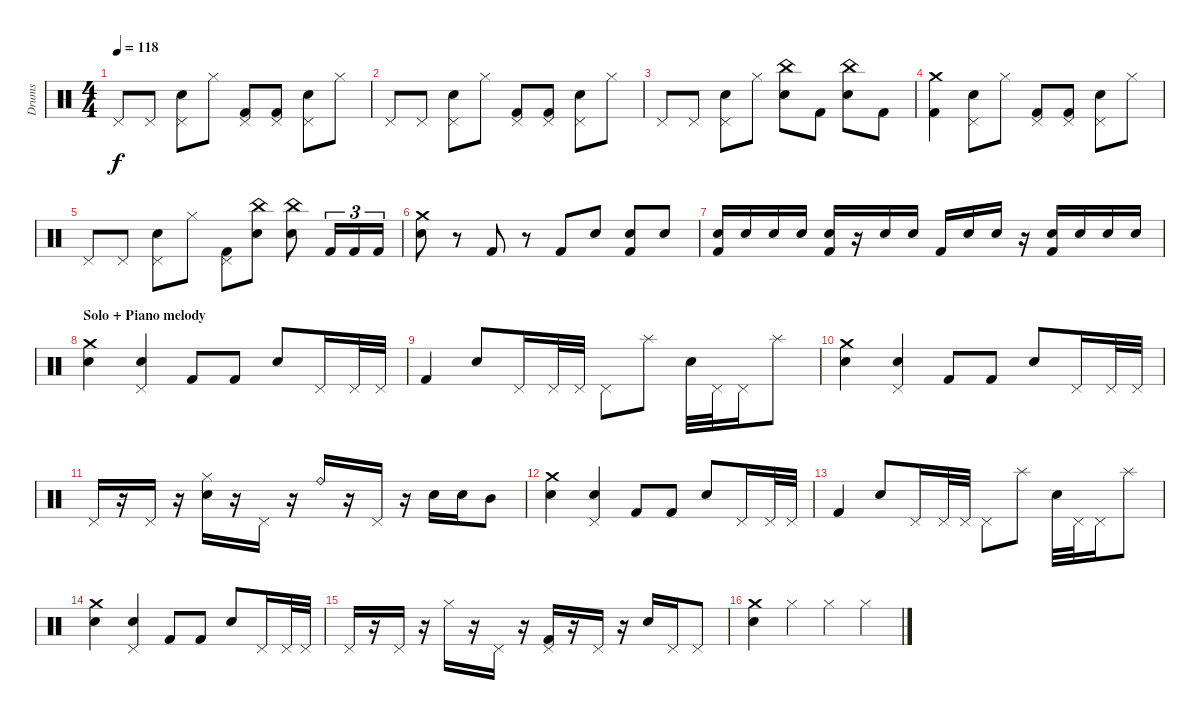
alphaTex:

\track ("Drums" "Drums") {instrument percussion}
\staff {score}
\articulation defaults
\ts (4 4)
\tempo 118
\clef neutral
\ks c "Pedal Hi-Hat (hit)".8{dy f} "Pedal Hi-Hat (hit)".8
("Pedal Hi-Hat (hit)" "Electric Snare (hit)").8 "Hi-Hat (closed)".8 ("Pedal Hi-Hat (hit)" "Kick (hit) 2").8 ("Pedal Hi-Hat (hit)" "Kick (hit) 2").8 ("Pedal Hi-Hat (hit)" "Electric Snare (hit)").8 "Hi-Hat (closed)".8 |
"Pedal Hi-Hat (hit)".8 "Pedal Hi-Hat (hit)".8 ("Pedal Hi-Hat (hit)" "Electric Snare (hit)").8 "Hi-Hat (closed)".8 ("Pedal Hi-Hat (hit)" "Kick (hit) 2").8 ("Pedal Hi-Hat (hit)" "Kick (hit) 2").8 ("Pedal Hi-Hat (hit)" "Electric Snare (hit)").8 "Hi-Hat (closed)".8 |
"Pedal Hi-Hat (hit)".8 "Pedal Hi-Hat (hit)".8 ("Pedal Hi-Hat (hit)" "Electric Snare (hit)").8 "Hi-Hat (closed)".8 ("China (hit)" "Electric Snare (hit)").8 "Kick (hit) 2".8 ("China (hit)" "Electric Snare (hit)").8 "Kick (hit) 2".8 |
("Crash medium (hit)" "Kick (hit) 2").4 ("Pedal Hi-Hat (hit)" "Electric Snare (hit)").8 "Hi-Hat (closed)".8 ("Pedal Hi-Hat (hit)" "Kick (hit) 2").8 ("Pedal Hi-Hat (hit)" "Kick (hit) 2").8 ("Pedal Hi-Hat (hit)" "Electric Snare (hit)").8 "Hi-Hat (closed)".8 |
"Pedal Hi-Hat (hit)".8 "Pedal Hi-Hat (hit)".8 ("Pedal Hi-Hat (hit)" "Electric Snare (hit)").8 "Hi-Hat (closed)".8 ("Pedal Hi-Hat (hit)" "Kick (hit) 2").8 ("China (hit)" "Electric Snare (hit)").8 ("China (hit)" "Electric Snare (hit)").8 "Kick (hit) 2".16{tu (3 2)} "Kick (hit) 2".16{tu (3 2)} "Kick (hit) 2".16{tu (3 2)} |
("Crash medium (hit)" "Electric Snare (hit)").8 r.8 "Kick (hit) 2".8 r.8 "Kick (hit) 2".8 "Electric Snare (hit)".8 ("Electric Snare (hit)" "Kick (hit) 2").8 "Electric Snare (hit)".8 |
("Electric Snare (hit)" "Kick (hit) 2").16 "Electric Snare (hit)".16 "Electric Snare (hit)".16 "Electric Snare (hit)".16 ("Electric Snare (hit)" "Kick (hit) 2").16 r.16 "Electric Snare (hit)".16 "Electric Snare (hit)".16 "Kick (hit) 2".16 "Electric Snare (hit)".16 "Electric Snare (hit)".16 r.16 ("Electric Snare (hit)" "Kick (hit) 2").16 "Electric Snare (hit)".16 "Electric Snare (hit)".16 "Electric Snare (hit)".16 |
\section ("" "Solo + Piano melody")
("Crash medium (hit)" "Snare (hit) 2").4 ("Pedal Hi-Hat (hit)" "Electric Snare (hit)").4 "Kick (hit) 2".8 "Kick (hit) 2".8 "Electric Snare (hit)".8 "Pedal Hi-Hat (hit)".16 "Pedal Hi-Hat (hit)".32 "Pedal Hi-Hat (hit)".32 |
"Kick (hit) 2".4 "Electric Snare (hit)".8 "Pedal Hi-Hat (hit)".16 "Pedal Hi-Hat (hit)".32 "Pedal Hi-Hat (hit)".32 "Pedal Hi-Hat (hit)".8 "Splash (hit)".8 "Electric Snare (hit)".32 "Pedal Hi-Hat (hit)".32 "Pedal Hi-Hat (hit)".16 "Splash (hit)".8 |
("Crash medium (hit)" "Snare (hit) 2").4 ("Pedal Hi-Hat (hit)" "Electric Snare (hit)").4 "Kick (hit) 2".8 "Kick (hit) 2".8 "Electric Snare (hit)".8 "Pedal Hi-Hat (hit)".16 "Pedal Hi-Hat (hit)".32 "Pedal Hi-Hat (hit)".32 |
"Pedal Hi-Hat (hit)".16 r.16 "Pedal Hi-Hat (hit)".16 r.16 ("Hi-Hat (closed)" "Electric Snare (hit)").16 r.16 "Pedal Hi-Hat (hit)".16 r.16 "Ride (bell)".16 r.16 "Pedal Hi-Hat (hit)".16 r.16 "Electric Snare (hit)".16 "Electric Snare (hit)".16 "Mid Tom (hit)".8 |
("Crash medium (hit)" "Snare (hit) 2").4 ("Pedal Hi-Hat (hit)" "Electric Snare (hit)").4 "Kick (hit) 2".8 "Kick (hit) 2".8 "Electric Snare (hit)".8 "Pedal Hi-Hat (hit)".16 "Pedal Hi-Hat (hit)".32 "Pedal Hi-Hat (hit)".32 |
"Kick (hit) 2".4 "Electric Snare (hit)".8 "Pedal Hi-Hat (hit)".16 "Pedal Hi-Hat (hit)".32 "Pedal Hi-Hat (hit)".32 "Pedal Hi-Hat (hit)".8 "Splash (hit)".8 "Electric Snare (hit)".32 "Pedal Hi-Hat (hit)".32 "Pedal Hi-Hat (hit)".16 "Splash (hit)".8 |
("Crash medium (hit)" "Snare (hit) 2").4 ("Pedal Hi-Hat (hit)" "Electric Snare (hit)").4 "Kick (hit) 2".8 "Kick (hit) 2".8 "Electric Snare (hit)".8 "Pedal Hi-Hat (hit)".16 "Pedal Hi-Hat (hit)".32 "Pedal Hi-Hat (hit)".32 |
"Pedal Hi-Hat (hit)".16 r.16 "Pedal Hi-Hat (hit)".16 r.16 "Hi-Hat (closed)".16 r.16 "Pedal Hi-Hat (hit)".16 r.16 ("Pedal Hi-Hat (hit)" "Kick (hit) 2").16 r.16 "Pedal Hi-Hat (hit)".16 r.16 "Electric Snare (hit)".16 "Pedal Hi-Hat (hit)".16 "Pedal Hi-Hat (hit)".8 |
("Crash medium (hit)" "Snare (hit) 2").4 "Hi-Hat (closed)".4 "Hi-Hat (closed)".4 "Hi-Hat (closed)".4
